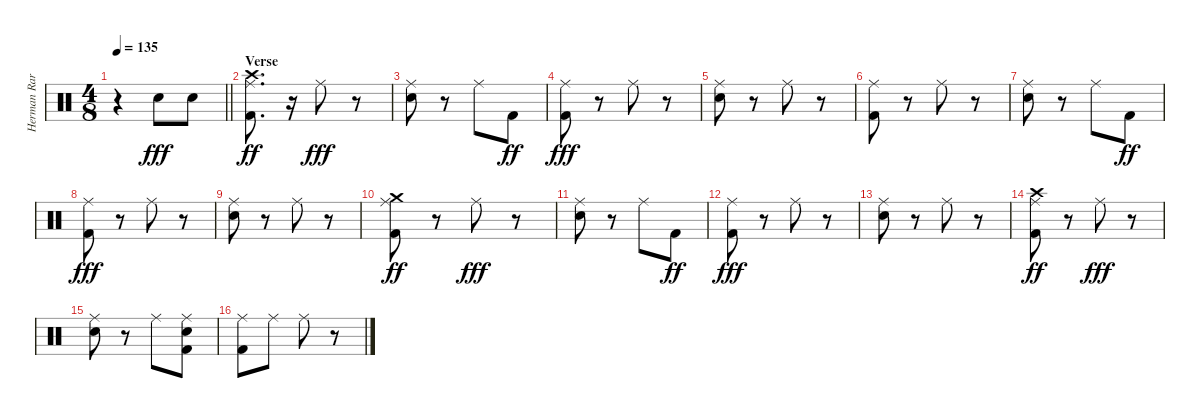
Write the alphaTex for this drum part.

\track ("Herman Rarebell" "Herman Rar") {instrument percussion}
\staff {score}
\articulation defaults
\ts (4 8)
\tempo 135
\clef neutral
\barLineRight lightlight
\ks c
r.4{dy ff} "Snare (hit) 2".8{dy fff} "Snare (hit) 2".8 |
\section ("" "Verse")
("Kick (hit) 2" "Ride (middle)" "Crash high (hit)").8{d dy ff} r.16 "Ride (middle)".8{dy fff} r.8 |
("Snare (hit) 2" "Ride (middle)").8 r.8 "Ride (middle)".8 "Kick (hit) 2".8{dy ff} |
("Kick (hit) 2" "Ride (middle)").8{dy fff} r.8 "Ride (middle)".8 r.8 |
("Snare (hit) 2" "Ride (middle)").8 r.8 "Ride (middle)".8 r.8 |
("Kick (hit) 2" "Ride (middle)").8 r.8 "Ride (middle)".8 r.8 |
("Snare (hit) 2" "Ride (middle)").8 r.8 "Ride (middle)".8 "Kick (hit) 2".8{dy ff} |
("Kick (hit) 2" "Ride (middle)").8{dy fff} r.8 "Ride (middle)".8 r.8 |
("Snare (hit) 2" "Ride (middle)").8 r.8 "Ride (middle)".8 r.8 |
("Kick (hit) 2" "Ride (middle)" "Crash medium (hit)").8{dy ff} r.8 "Ride (middle)".8{dy fff} r.8 |
("Snare (hit) 2" "Ride (middle)").8 r.8 "Ride (middle)".8 "Kick (hit) 2".8{dy ff} |
("Kick (hit) 2" "Ride (middle)").8{dy fff} r.8 "Ride (middle)".8 r.8 |
("Snare (hit) 2" "Ride (middle)").8 r.8 "Ride (middle)".8 r.8 |
("Kick (hit) 2" "Ride (middle)" "Crash high (hit)").8{dy ff} r.8 "Ride (middle)".8{dy fff} r.8 |
("Snare (hit) 2" "Ride (middle)").8 r.8 "Ride (middle)".8 ("Kick (hit) 2" "Snare (hit) 2" "Ride (middle)").8 |
("Kick (hit) 2" "Ride (middle)").8 "Ride (middle)".8 "Ride (middle)".8 r.8
